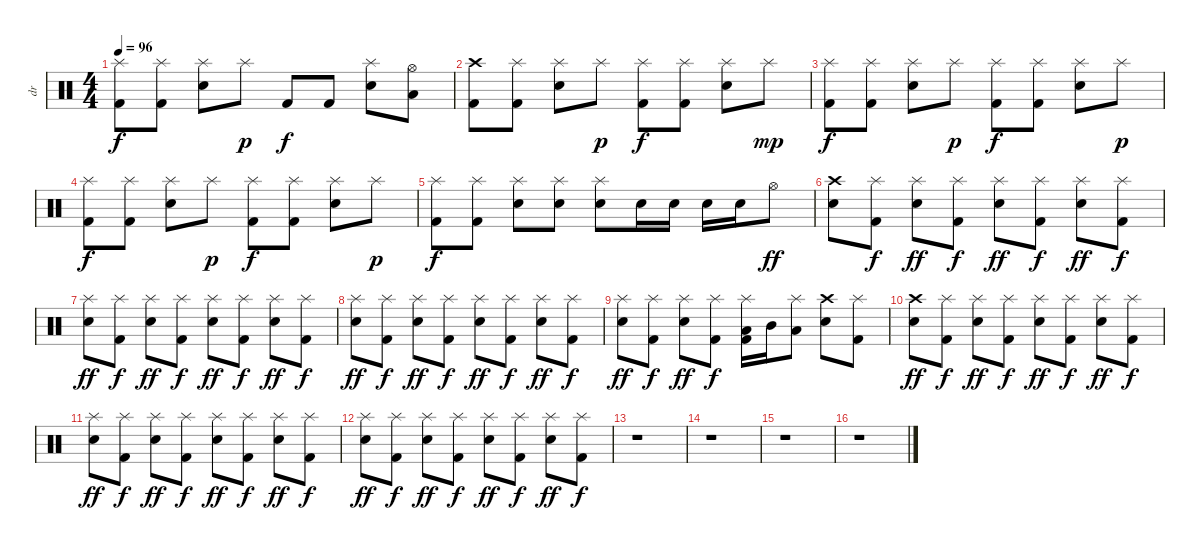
\track ("dr" "dr") {instrument percussion}
\staff {score}
\articulation defaults
\ts (4 4)
\tempo 96
\clef neutral
\ks c
("Splash (hit)" "Kick (hit) 2").8{dy f} ("Splash (hit)" "Kick (hit) 2").8 ("Splash (hit)" "Electric Snare (hit)").8 "Splash (hit)".8{dy p} "Kick (hit) 2".8{dy f} "Kick (hit) 2".8 ("Splash (hit)" "Electric Snare (hit)").8 ("Hi-Hat (open)" "Low Tom (hit)").8 |
("Crash high (hit)" "Kick (hit) 2").8 ("Splash (hit)" "Kick (hit) 2").8 ("Splash (hit)" "Electric Snare (hit)").8 "Splash (hit)".8{dy p} ("Splash (hit)" "Kick (hit) 2").8{dy f} ("Splash (hit)" "Kick (hit) 2").8 ("Splash (hit)" "Electric Snare (hit)").8 "Splash (hit)".8{dy mp} |
("Splash (hit)" "Kick (hit) 2").8{dy f} ("Splash (hit)" "Kick (hit) 2").8 ("Splash (hit)" "Electric Snare (hit)").8 "Splash (hit)".8{dy p} ("Splash (hit)" "Kick (hit) 2").8{dy f} ("Splash (hit)" "Kick (hit) 2").8 ("Splash (hit)" "Electric Snare (hit)").8 "Splash (hit)".8{dy p} |
("Splash (hit)" "Kick (hit) 2").8{dy f} ("Splash (hit)" "Kick (hit) 2").8 ("Splash (hit)" "Electric Snare (hit)").8 "Splash (hit)".8{dy p} ("Splash (hit)" "Kick (hit) 2").8{dy f} ("Splash (hit)" "Kick (hit) 2").8 ("Splash (hit)" "Electric Snare (hit)").8 "Splash (hit)".8{dy p} |
("Splash (hit)" "Kick (hit) 2").8{dy f} ("Splash (hit)" "Kick (hit) 2").8 ("Splash (hit)" "Electric Snare (hit)").8 ("Splash (hit)" "Electric Snare (hit)").8 ("Splash (hit)" "Electric Snare (hit)").8 "Electric Snare (hit)".16 "Electric Snare (hit)".16 "Electric Snare (hit)".16 "Electric Snare (hit)".16 "Hi-Hat (open)".8{dy ff} |
("Crash high (hit)" "Electric Snare (hit)").8 ("Splash (hit)" "Kick (hit) 2").8{dy f} ("Splash (hit)" "Electric Snare (hit)").8{dy ff} ("Splash (hit)" "Kick (hit) 2").8{dy f} ("Splash (hit)" "Electric Snare (hit)").8{dy ff} ("Splash (hit)" "Kick (hit) 2").8{dy f} ("Splash (hit)" "Electric Snare (hit)").8{dy ff} ("Splash (hit)" "Kick (hit) 2").8{dy f} |
("Splash (hit)" "Electric Snare (hit)").8{dy ff} ("Splash (hit)" "Kick (hit) 2").8{dy f} ("Splash (hit)" "Electric Snare (hit)").8{dy ff} ("Splash (hit)" "Kick (hit) 2").8{dy f} ("Splash (hit)" "Electric Snare (hit)").8{dy ff} ("Splash (hit)" "Kick (hit) 2").8{dy f} ("Splash (hit)" "Electric Snare (hit)").8{dy ff} ("Splash (hit)" "Kick (hit) 2").8{dy f} |
("Splash (hit)" "Electric Snare (hit)").8{dy ff} ("Splash (hit)" "Kick (hit) 2").8{dy f} ("Splash (hit)" "Electric Snare (hit)").8{dy ff} ("Splash (hit)" "Kick (hit) 2").8{dy f} ("Splash (hit)" "Electric Snare (hit)").8{dy ff} ("Splash (hit)" "Kick (hit) 2").8{dy f} ("Splash (hit)" "Electric Snare (hit)").8{dy ff} ("Splash (hit)" "Kick (hit) 2").8{dy f} |
("Splash (hit)" "Electric Snare (hit)").8{dy ff} ("Splash (hit)" "Kick (hit) 2").8{dy f} ("Splash (hit)" "Electric Snare (hit)").8{dy ff} ("Splash (hit)" "Kick (hit) 2").8{dy f} ("Splash (hit)" "Low Tom (hit)" "Kick (hit) 2").16 "Mid Tom (hit)".16 ("Splash (hit)" "Low Tom (hit)").8 ("Crash high (hit)" "Electric Snare (hit)").8 ("Splash (hit)" "Kick (hit) 2").8 |
("Crash high (hit)" "Electric Snare (hit)").8{dy ff} ("Splash (hit)" "Kick (hit) 2").8{dy f} ("Splash (hit)" "Electric Snare (hit)").8{dy ff} ("Splash (hit)" "Kick (hit) 2").8{dy f} ("Splash (hit)" "Electric Snare (hit)").8{dy ff} ("Splash (hit)" "Kick (hit) 2").8{dy f} ("Splash (hit)" "Electric Snare (hit)").8{dy ff} ("Splash (hit)" "Kick (hit) 2").8{dy f} |
("Splash (hit)" "Electric Snare (hit)").8{dy ff} ("Splash (hit)" "Kick (hit) 2").8{dy f} ("Splash (hit)" "Electric Snare (hit)").8{dy ff} ("Splash (hit)" "Kick (hit) 2").8{dy f} ("Splash (hit)" "Electric Snare (hit)").8{dy ff} ("Splash (hit)" "Kick (hit) 2").8{dy f} ("Splash (hit)" "Electric Snare (hit)").8{dy ff} ("Splash (hit)" "Kick (hit) 2").8{dy f} |
("Splash (hit)" "Electric Snare (hit)").8{dy ff} ("Splash (hit)" "Kick (hit) 2").8{dy f} ("Splash (hit)" "Electric Snare (hit)").8{dy ff} ("Splash (hit)" "Kick (hit) 2").8{dy f} ("Splash (hit)" "Electric Snare (hit)").8{dy ff} ("Splash (hit)" "Kick (hit) 2").8{dy f} ("Splash (hit)" "Electric Snare (hit)").8{dy ff} ("Splash (hit)" "Kick (hit) 2").8{dy f} |
r.1 |
r.1 |
r.1 |
r.1
